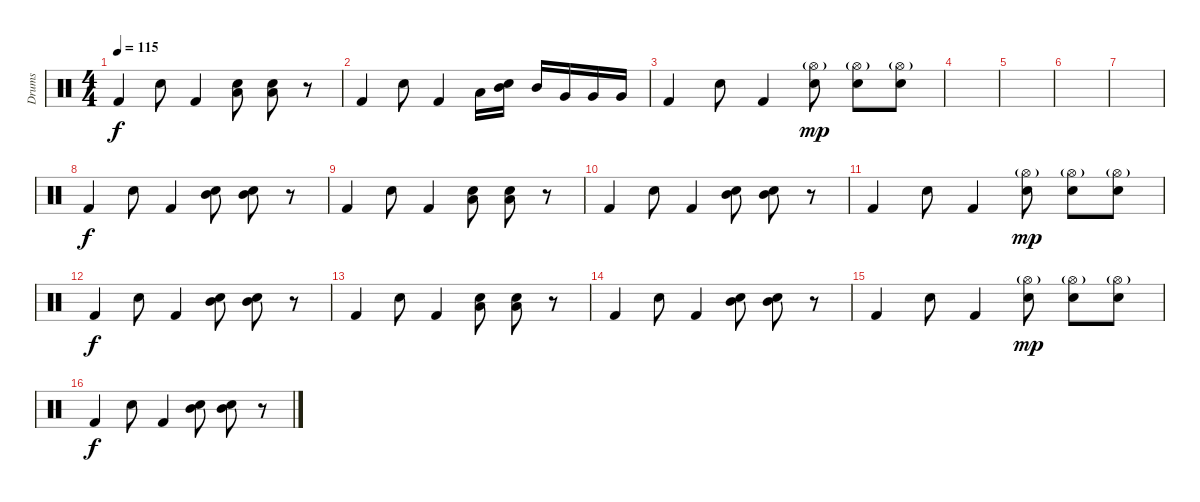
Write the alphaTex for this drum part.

\track ("Drums" "Drums") {instrument percussion}
\staff {score}
\articulation defaults
\ts (4 4)
\tempo 115
\clef neutral
\ks c "Kick (hit) 2".4{dy f} "Snare (hit) 2".8 "Kick (hit) 2".4
("Low Tom (hit)" "Snare (hit) 2").8 ("Low Tom (hit)" "Snare (hit) 2").8 r.8 |
"Kick (hit) 2".4 "Snare (hit) 2".8 "Kick (hit) 2".4 "Low Tom (hit)".16 ("Mid Tom (hit)" "Snare (hit) 2").16 "Mid Tom (hit)".16 "Very Low Tom (hit)".16 "Very Low Tom (hit)".16 "Very Low Tom (hit)".16 |
"Kick (hit) 2".4 "Snare (hit) 2".8 "Kick (hit) 2".4 ("Hi-Hat (open)"{g} "Snare (hit) 2").8{dy mp} ("Hi-Hat (open)"{g} "Snare (hit) 2").8 ("Hi-Hat (open)"{g} "Snare (hit) 2").8 |
|
|
|
|
"Kick (hit) 2".4{dy f} "Snare (hit) 2".8 "Kick (hit) 2".4 ("Mid Tom (hit)" "Snare (hit) 2").8 ("Mid Tom (hit)" "Snare (hit) 2").8 r.8 |
"Kick (hit) 2".4 "Snare (hit) 2".8 "Kick (hit) 2".4 ("Low Tom (hit)" "Snare (hit) 2").8 ("Low Tom (hit)" "Snare (hit) 2").8 r.8 |
"Kick (hit) 2".4 "Snare (hit) 2".8 "Kick (hit) 2".4 ("Mid Tom (hit)" "Snare (hit) 2").8 ("Mid Tom (hit)" "Snare (hit) 2").8 r.8 |
"Kick (hit) 2".4 "Snare (hit) 2".8 "Kick (hit) 2".4 ("Hi-Hat (open)"{g} "Snare (hit) 2").8{dy mp} ("Hi-Hat (open)"{g} "Snare (hit) 2").8 ("Hi-Hat (open)"{g} "Snare (hit) 2").8 |
"Kick (hit) 2".4{dy f} "Snare (hit) 2".8 "Kick (hit) 2".4 ("Mid Tom (hit)" "Snare (hit) 2").8 ("Mid Tom (hit)" "Snare (hit) 2").8 r.8 |
"Kick (hit) 2".4 "Snare (hit) 2".8 "Kick (hit) 2".4 ("Low Tom (hit)" "Snare (hit) 2").8 ("Low Tom (hit)" "Snare (hit) 2").8 r.8 |
"Kick (hit) 2".4 "Snare (hit) 2".8 "Kick (hit) 2".4 ("Mid Tom (hit)" "Snare (hit) 2").8 ("Mid Tom (hit)" "Snare (hit) 2").8 r.8 |
"Kick (hit) 2".4 "Snare (hit) 2".8 "Kick (hit) 2".4 ("Hi-Hat (open)"{g} "Snare (hit) 2").8{dy mp} ("Hi-Hat (open)"{g} "Snare (hit) 2").8 ("Hi-Hat (open)"{g} "Snare (hit) 2").8 |
"Kick (hit) 2".4{dy f} "Snare (hit) 2".8 "Kick (hit) 2".4 ("Mid Tom (hit)" "Snare (hit) 2").8 ("Mid Tom (hit)" "Snare (hit) 2").8 r.8
